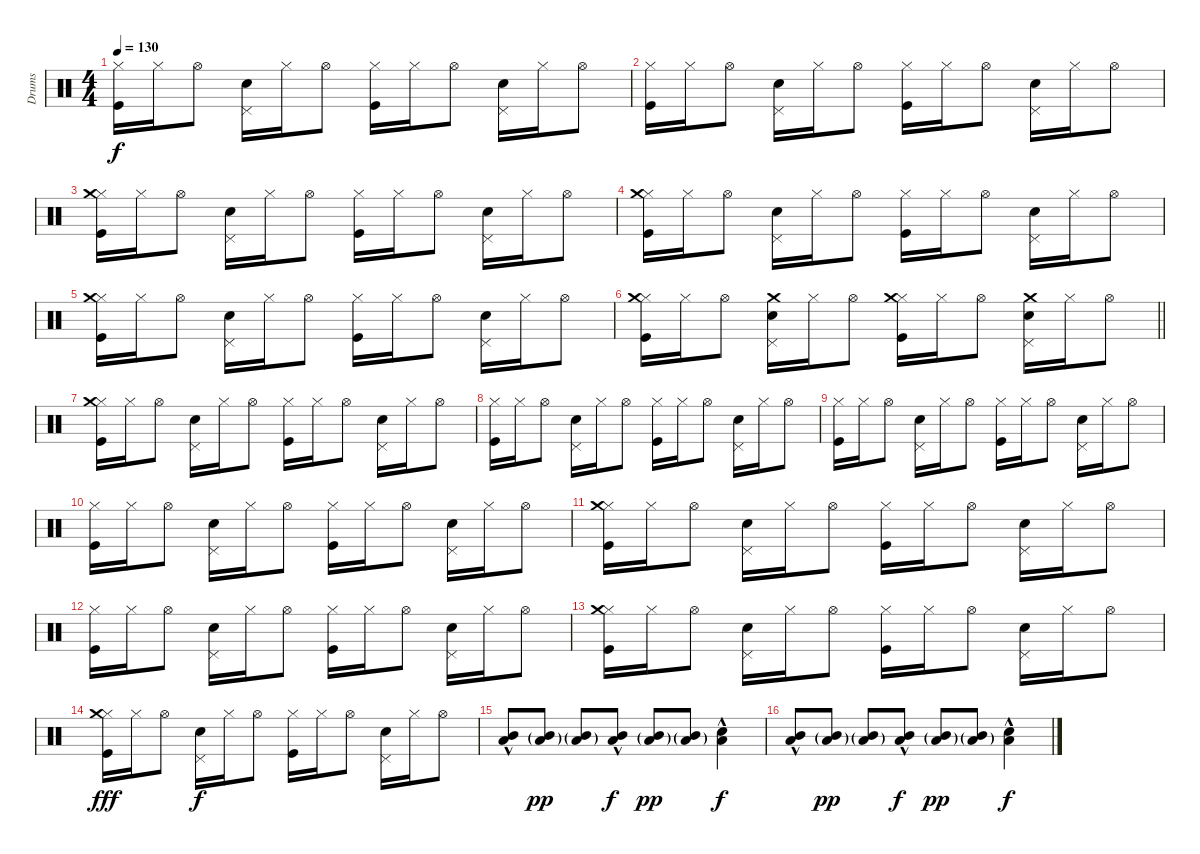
\track ("Drums" "Drums") {instrument percussion}
\staff {score}
\articulation defaults
\ts (4 4)
\tempo 130
\clef neutral
\ks c
("Hi-Hat (closed)" "Kick (hit)").16{dy f} "Hi-Hat (closed)".16 "Hi-Hat (open)".8 ("Pedal Hi-Hat (hit)" "Electric Snare (hit)").16 "Hi-Hat (closed)".16 "Hi-Hat (open)".8 ("Hi-Hat (closed)" "Kick (hit)").16 "Hi-Hat (closed)".16 "Hi-Hat (open)".8 ("Pedal Hi-Hat (hit)" "Electric Snare (hit)").16 "Hi-Hat (closed)".16 "Hi-Hat (open)".8 |
("Hi-Hat (closed)" "Kick (hit)").16 "Hi-Hat (closed)".16 "Hi-Hat (open)".8 ("Pedal Hi-Hat (hit)" "Electric Snare (hit)").16 "Hi-Hat (closed)".16 "Hi-Hat (open)".8 ("Hi-Hat (closed)" "Kick (hit)").16 "Hi-Hat (closed)".16 "Hi-Hat (open)".8 ("Pedal Hi-Hat (hit)" "Electric Snare (hit)").16 "Hi-Hat (closed)".16 "Hi-Hat (open)".8 |
("Hi-Hat (closed)" "Crash medium (hit)" "Kick (hit)").16 "Hi-Hat (closed)".16 "Hi-Hat (open)".8 ("Pedal Hi-Hat (hit)" "Electric Snare (hit)").16 "Hi-Hat (closed)".16 "Hi-Hat (open)".8 ("Hi-Hat (closed)" "Kick (hit)").16 "Hi-Hat (closed)".16 "Hi-Hat (open)".8 ("Pedal Hi-Hat (hit)" "Electric Snare (hit)").16 "Hi-Hat (closed)".16 "Hi-Hat (open)".8 |
("Hi-Hat (closed)" "Crash medium (hit)" "Kick (hit)").16 "Hi-Hat (closed)".16 "Hi-Hat (open)".8 ("Pedal Hi-Hat (hit)" "Electric Snare (hit)").16 "Hi-Hat (closed)".16 "Hi-Hat (open)".8 ("Hi-Hat (closed)" "Kick (hit)").16 "Hi-Hat (closed)".16 "Hi-Hat (open)".8 ("Pedal Hi-Hat (hit)" "Electric Snare (hit)").16 "Hi-Hat (closed)".16 "Hi-Hat (open)".8 |
("Hi-Hat (closed)" "Crash medium (hit)" "Kick (hit)").16 "Hi-Hat (closed)".16 "Hi-Hat (open)".8 ("Pedal Hi-Hat (hit)" "Electric Snare (hit)").16 "Hi-Hat (closed)".16 "Hi-Hat (open)".8 ("Hi-Hat (closed)" "Kick (hit)").16 "Hi-Hat (closed)".16 "Hi-Hat (open)".8 ("Pedal Hi-Hat (hit)" "Electric Snare (hit)").16 "Hi-Hat (closed)".16 "Hi-Hat (open)".8 |
\barLineRight lightlight
("Hi-Hat (closed)" "Crash medium (hit)" "Kick (hit)").16 "Hi-Hat (closed)".16 "Hi-Hat (open)".8 ("Pedal Hi-Hat (hit)" "Crash medium (hit)" "Electric Snare (hit)").16 "Hi-Hat (closed)".16 "Hi-Hat (open)".8 ("Hi-Hat (closed)" "Crash medium (hit)" "Kick (hit)").16 "Hi-Hat (closed)".16 "Hi-Hat (open)".8 ("Pedal Hi-Hat (hit)" "Crash medium (hit)" "Electric Snare (hit)").16 "Hi-Hat (closed)".16 "Hi-Hat (open)".8 |
("Hi-Hat (closed)" "Crash medium (hit)" "Kick (hit)").16 "Hi-Hat (closed)".16 "Hi-Hat (open)".8 ("Pedal Hi-Hat (hit)" "Electric Snare (hit)").16 "Hi-Hat (closed)".16 "Hi-Hat (open)".8 ("Hi-Hat (closed)" "Kick (hit)").16 "Hi-Hat (closed)".16 "Hi-Hat (open)".8 ("Pedal Hi-Hat (hit)" "Electric Snare (hit)").16 "Hi-Hat (closed)".16 "Hi-Hat (open)".8 |
("Hi-Hat (closed)" "Kick (hit)").16 "Hi-Hat (closed)".16 "Hi-Hat (open)".8 ("Pedal Hi-Hat (hit)" "Electric Snare (hit)").16 "Hi-Hat (closed)".16 "Hi-Hat (open)".8 ("Hi-Hat (closed)" "Kick (hit)").16 "Hi-Hat (closed)".16 "Hi-Hat (open)".8 ("Pedal Hi-Hat (hit)" "Electric Snare (hit)").16 "Hi-Hat (closed)".16 "Hi-Hat (open)".8 |
("Hi-Hat (closed)" "Kick (hit)").16 "Hi-Hat (closed)".16 "Hi-Hat (open)".8 ("Pedal Hi-Hat (hit)" "Electric Snare (hit)").16 "Hi-Hat (closed)".16 "Hi-Hat (open)".8 ("Hi-Hat (closed)" "Kick (hit)").16 "Hi-Hat (closed)".16 "Hi-Hat (open)".8 ("Pedal Hi-Hat (hit)" "Electric Snare (hit)").16 "Hi-Hat (closed)".16 "Hi-Hat (open)".8 |
("Hi-Hat (closed)" "Kick (hit)").16 "Hi-Hat (closed)".16 "Hi-Hat (open)".8 ("Pedal Hi-Hat (hit)" "Electric Snare (hit)").16 "Hi-Hat (closed)".16 "Hi-Hat (open)".8 ("Hi-Hat (closed)" "Kick (hit)").16 "Hi-Hat (closed)".16 "Hi-Hat (open)".8 ("Pedal Hi-Hat (hit)" "Electric Snare (hit)").16 "Hi-Hat (closed)".16 "Hi-Hat (open)".8 |
("Hi-Hat (closed)" "Crash medium (hit)" "Kick (hit)").16 "Hi-Hat (closed)".16 "Hi-Hat (open)".8 ("Pedal Hi-Hat (hit)" "Electric Snare (hit)").16 "Hi-Hat (closed)".16 "Hi-Hat (open)".8 ("Hi-Hat (closed)" "Kick (hit)").16 "Hi-Hat (closed)".16 "Hi-Hat (open)".8 ("Pedal Hi-Hat (hit)" "Electric Snare (hit)").16 "Hi-Hat (closed)".16 "Hi-Hat (open)".8 |
("Hi-Hat (closed)" "Kick (hit)").16 "Hi-Hat (closed)".16 "Hi-Hat (open)".8 ("Pedal Hi-Hat (hit)" "Electric Snare (hit)").16 "Hi-Hat (closed)".16 "Hi-Hat (open)".8 ("Hi-Hat (closed)" "Kick (hit)").16 "Hi-Hat (closed)".16 "Hi-Hat (open)".8 ("Pedal Hi-Hat (hit)" "Electric Snare (hit)").16 "Hi-Hat (closed)".16 "Hi-Hat (open)".8 |
("Hi-Hat (closed)" "Crash medium (hit)" "Kick (hit)").16 "Hi-Hat (closed)".16 "Hi-Hat (open)".8 ("Pedal Hi-Hat (hit)" "Electric Snare (hit)").16 "Hi-Hat (closed)".16 "Hi-Hat (open)".8 ("Hi-Hat (closed)" "Kick (hit)").16 "Hi-Hat (closed)".16 "Hi-Hat (open)".8 ("Pedal Hi-Hat (hit)" "Electric Snare (hit)").16 "Hi-Hat (closed)".16 "Hi-Hat (open)".8 |
("Hi-Hat (closed)" "Crash medium (hit)" "Kick (hit)").16{dy fff} "Hi-Hat (closed)".16 "Hi-Hat (open)".8 ("Pedal Hi-Hat (hit)" "Electric Snare (hit)").16{dy f} "Hi-Hat (closed)".16 "Hi-Hat (open)".8 ("Hi-Hat (closed)" "Kick (hit)").16 "Hi-Hat (closed)".16 "Hi-Hat (open)".8 ("Pedal Hi-Hat (hit)" "Electric Snare (hit)").16 "Hi-Hat (closed)".16 "Hi-Hat (open)".8 |
("Mid Tom (hit)"{hac} "Low Tom (hit)"{hac}).8 ("Mid Tom (hit)"{g} "Low Tom (hit)"{g}).8{dy pp} ("Mid Tom (hit)"{g} "Low Tom (hit)"{g}).8 ("Mid Tom (hit)"{hac} "Low Tom (hit)"{hac}).8{dy f} ("Mid Tom (hit)"{g} "Low Tom (hit)"{g}).8{dy pp} ("Mid Tom (hit)"{g} "Low Tom (hit)"{g}).8 ("Electric Snare (hit)"{hac} "Low Tom (hit)"{hac}).4{dy f} |
("Mid Tom (hit)"{hac} "Low Tom (hit)"{hac}).8 ("Mid Tom (hit)"{g} "Low Tom (hit)"{g}).8{dy pp} ("Mid Tom (hit)"{g} "Low Tom (hit)"{g}).8 ("Mid Tom (hit)"{hac} "Low Tom (hit)"{hac}).8{dy f} ("Mid Tom (hit)"{g} "Low Tom (hit)"{g}).8{dy pp} ("Mid Tom (hit)"{g} "Low Tom (hit)"{g}).8 ("Electric Snare (hit)"{hac} "Low Tom (hit)"{hac}).4{dy f}
